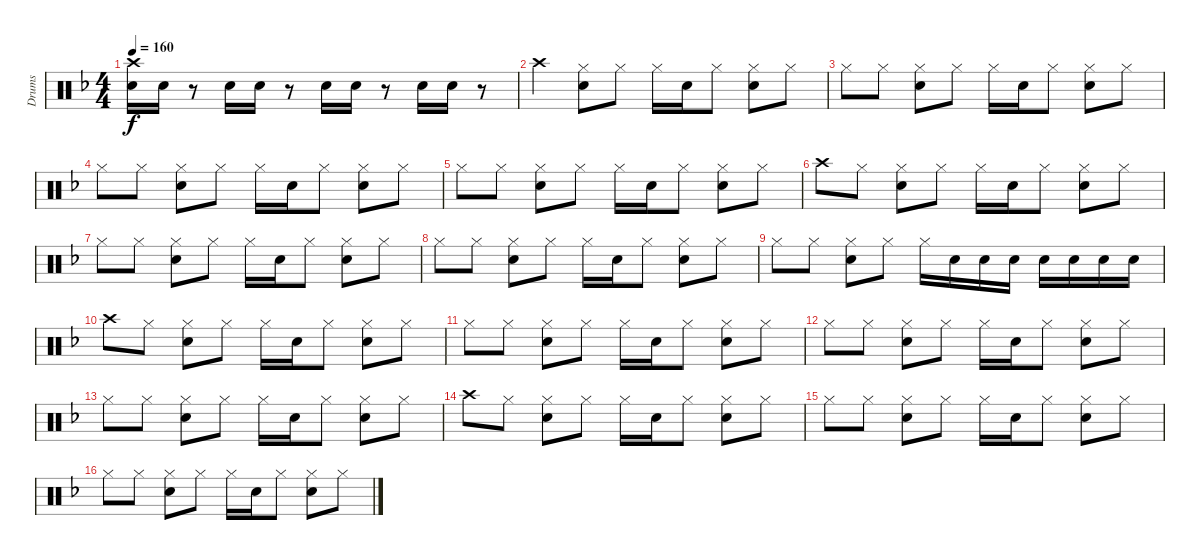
\track ("Drums" "Drums") {instrument percussion}
\staff {score}
\articulation defaults
\ts (4 4)
\tempo 160
\clef neutral
\ks f
("Crash high (hit)" "Snare (hit) 2").16{dy f} "Snare (hit) 2".16 r.8 "Snare (hit) 2".16 "Snare (hit) 2".16 r.8 "Snare (hit) 2".16 "Snare (hit) 2".16 r.8 "Snare (hit) 2".16 "Snare (hit) 2".16 r.8 |
"Crash high (hit)".4 ("Hi-Hat (closed)" "Snare (hit) 2").8 "Hi-Hat (closed)".8 "Hi-Hat (closed)".16 "Snare (hit) 2".16 "Hi-Hat (closed)".8 ("Hi-Hat (closed)" "Snare (hit) 2").8 "Hi-Hat (closed)".8 |
"Hi-Hat (closed)".8 "Hi-Hat (closed)".8 ("Hi-Hat (closed)" "Snare (hit) 2").8 "Hi-Hat (closed)".8 "Hi-Hat (closed)".16 "Snare (hit) 2".16 "Hi-Hat (closed)".8 ("Hi-Hat (closed)" "Snare (hit) 2").8 "Hi-Hat (closed)".8 |
"Hi-Hat (closed)".8 "Hi-Hat (closed)".8 ("Hi-Hat (closed)" "Snare (hit) 2").8 "Hi-Hat (closed)".8 "Hi-Hat (closed)".16 "Snare (hit) 2".16 "Hi-Hat (closed)".8 ("Hi-Hat (closed)" "Snare (hit) 2").8 "Hi-Hat (closed)".8 |
"Hi-Hat (closed)".8 "Hi-Hat (closed)".8 ("Hi-Hat (closed)" "Snare (hit) 2").8 "Hi-Hat (closed)".8 "Hi-Hat (closed)".16 "Snare (hit) 2".16 "Hi-Hat (closed)".8 ("Hi-Hat (closed)" "Snare (hit) 2").8 "Hi-Hat (closed)".8 |
"Crash high (hit)".8 "Hi-Hat (closed)".8 ("Hi-Hat (closed)" "Snare (hit) 2").8 "Hi-Hat (closed)".8 "Hi-Hat (closed)".16 "Snare (hit) 2".16 "Hi-Hat (closed)".8 ("Hi-Hat (closed)" "Snare (hit) 2").8 "Hi-Hat (closed)".8 |
"Hi-Hat (closed)".8 "Hi-Hat (closed)".8 ("Hi-Hat (closed)" "Snare (hit) 2").8 "Hi-Hat (closed)".8 "Hi-Hat (closed)".16 "Snare (hit) 2".16 "Hi-Hat (closed)".8 ("Hi-Hat (closed)" "Snare (hit) 2").8 "Hi-Hat (closed)".8 |
"Hi-Hat (closed)".8 "Hi-Hat (closed)".8 ("Hi-Hat (closed)" "Snare (hit) 2").8 "Hi-Hat (closed)".8 "Hi-Hat (closed)".16 "Snare (hit) 2".16 "Hi-Hat (closed)".8 ("Hi-Hat (closed)" "Snare (hit) 2").8 "Hi-Hat (closed)".8 |
"Hi-Hat (closed)".8 "Hi-Hat (closed)".8 ("Hi-Hat (closed)" "Snare (hit) 2").8 "Hi-Hat (closed)".8 "Hi-Hat (closed)".16 "Snare (hit) 2".16 "Snare (hit) 2".16 "Snare (hit) 2".16 "Snare (hit) 2".16 "Snare (hit) 2".16 "Snare (hit) 2".16 "Snare (hit) 2".16 |
"Crash high (hit)".8 "Hi-Hat (closed)".8 ("Hi-Hat (closed)" "Snare (hit) 2").8 "Hi-Hat (closed)".8 "Hi-Hat (closed)".16 "Snare (hit) 2".16 "Hi-Hat (closed)".8 ("Hi-Hat (closed)" "Snare (hit) 2").8 "Hi-Hat (closed)".8 |
"Hi-Hat (closed)".8 "Hi-Hat (closed)".8 ("Hi-Hat (closed)" "Snare (hit) 2").8 "Hi-Hat (closed)".8 "Hi-Hat (closed)".16 "Snare (hit) 2".16 "Hi-Hat (closed)".8 ("Hi-Hat (closed)" "Snare (hit) 2").8 "Hi-Hat (closed)".8 |
"Hi-Hat (closed)".8 "Hi-Hat (closed)".8 ("Hi-Hat (closed)" "Snare (hit) 2").8 "Hi-Hat (closed)".8 "Hi-Hat (closed)".16 "Snare (hit) 2".16 "Hi-Hat (closed)".8 ("Hi-Hat (closed)" "Snare (hit) 2").8 "Hi-Hat (closed)".8 |
"Hi-Hat (closed)".8 "Hi-Hat (closed)".8 ("Hi-Hat (closed)" "Snare (hit) 2").8 "Hi-Hat (closed)".8 "Hi-Hat (closed)".16 "Snare (hit) 2".16 "Hi-Hat (closed)".8 ("Hi-Hat (closed)" "Snare (hit) 2").8 "Hi-Hat (closed)".8 |
"Crash high (hit)".8 "Hi-Hat (closed)".8 ("Hi-Hat (closed)" "Snare (hit) 2").8 "Hi-Hat (closed)".8 "Hi-Hat (closed)".16 "Snare (hit) 2".16 "Hi-Hat (closed)".8 ("Hi-Hat (closed)" "Snare (hit) 2").8 "Hi-Hat (closed)".8 |
"Hi-Hat (closed)".8 "Hi-Hat (closed)".8 ("Hi-Hat (closed)" "Snare (hit) 2").8 "Hi-Hat (closed)".8 "Hi-Hat (closed)".16 "Snare (hit) 2".16 "Hi-Hat (closed)".8 ("Hi-Hat (closed)" "Snare (hit) 2").8 "Hi-Hat (closed)".8 |
"Hi-Hat (closed)".8 "Hi-Hat (closed)".8 ("Hi-Hat (closed)" "Snare (hit) 2").8 "Hi-Hat (closed)".8 "Hi-Hat (closed)".16 "Snare (hit) 2".16 "Hi-Hat (closed)".8 ("Hi-Hat (closed)" "Snare (hit) 2").8 "Hi-Hat (closed)".8
